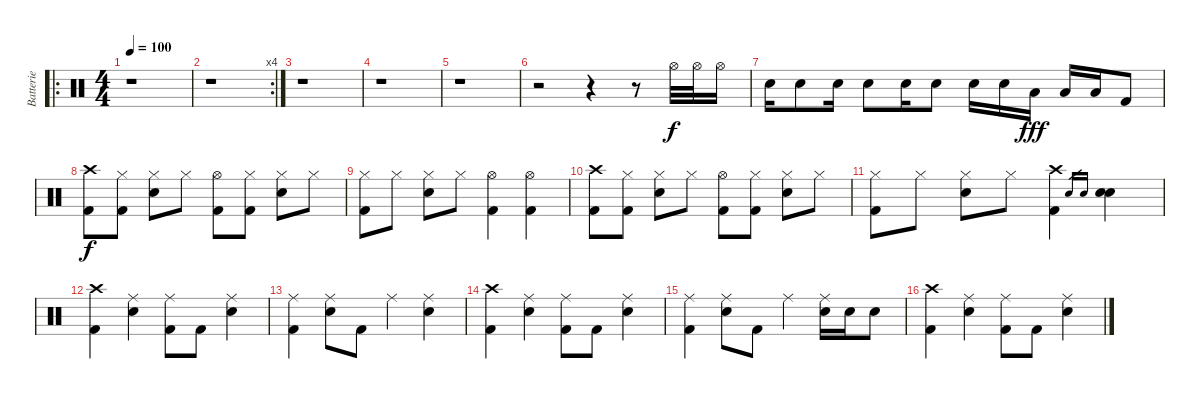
\track ("Batterie" "Batterie") {instrument percussion}
\staff {score}
\articulation defaults
\ro
\ts (4 4)
\tempo 100
\clef neutral
\ks c
r.1{dy f} |
\rc 4
r.1 |
r.1 |
r.1 |
r.1 |
r.2 r.4 r.8 "Hi-Hat (open)".32 "Hi-Hat (open)".32 "Hi-Hat (open)".16 |
"Electric Snare (hit)".16 "Electric Snare (hit)".8 "Electric Snare (hit)".16 "Electric Snare (hit)".8 "Electric Snare (hit)".16 "Electric Snare (hit)".8 "Electric Snare (hit)".16 "Electric Snare (hit)".16 "Low Floor Tom (hit)".16{dy fff} "Low Floor Tom (hit)".16 "Low Tom (hit)".16 "Kick (hit) 2".8 |
("Crash high (hit)" "Kick (hit) 2").8{dy f} ("Hi-Hat (closed)" "Kick (hit) 2").8 ("Hi-Hat (closed)" "Electric Snare (hit)").8 "Hi-Hat (closed)".8 ("Hi-Hat (open)" "Kick (hit) 2").8 ("Hi-Hat (closed)" "Kick (hit) 2").8 ("Hi-Hat (closed)" "Electric Snare (hit)").8 "Hi-Hat (closed)".8 |
("Hi-Hat (closed)" "Kick (hit) 2").8 "Hi-Hat (closed)".8 ("Hi-Hat (closed)" "Electric Snare (hit)").8 "Hi-Hat (closed)".8 ("Hi-Hat (open)" "Kick (hit) 2").4 ("Hi-Hat (open)" "Kick (hit) 2").4 |
("Crash high (hit)" "Kick (hit) 2").8 ("Hi-Hat (closed)" "Kick (hit) 2").8 ("Hi-Hat (closed)" "Electric Snare (hit)").8 "Hi-Hat (closed)".8 ("Hi-Hat (open)" "Kick (hit) 2").8 ("Hi-Hat (closed)" "Kick (hit) 2").8 ("Hi-Hat (closed)" "Electric Snare (hit)").8 "Hi-Hat (closed)".8 |
("Hi-Hat (closed)" "Kick (hit) 2").8 "Hi-Hat (closed)".8 ("Hi-Hat (closed)" "Electric Snare (hit)").8 "Hi-Hat (closed)".8 ("Crash high (hit)" "Kick (hit) 2").4 "Electric Snare (hit)".16{gr} "Electric Snare (hit)".16{gr} ("Electric Snare (hit)" "Electric Snare (hit)").4 |
("Crash high (hit)" "Kick (hit) 2").4 ("Ride (middle)" "Electric Snare (hit)").4 ("Ride (middle)" "Kick (hit) 2").8 "Kick (hit) 2".8 ("Ride (middle)" "Electric Snare (hit)").4 |
("Ride (middle)" "Kick (hit) 2").4 ("Ride (middle)" "Electric Snare (hit)").8 "Kick (hit) 2".8 "Ride (middle)".4 ("Ride (middle)" "Electric Snare (hit)").4 |
("Crash high (hit)" "Kick (hit) 2").4 ("Ride (middle)" "Electric Snare (hit)").4 ("Ride (middle)" "Kick (hit) 2").8 "Kick (hit) 2".8 ("Ride (middle)" "Electric Snare (hit)").4 |
("Ride (middle)" "Kick (hit) 2").4 ("Ride (middle)" "Electric Snare (hit)").8 "Kick (hit) 2".8 "Ride (middle)".4 ("Ride (middle)" "Electric Snare (hit)").16 "Electric Snare (hit)".16 "Electric Snare (hit)".8 |
("Crash high (hit)" "Kick (hit) 2").4 ("Ride (middle)" "Electric Snare (hit)").4 ("Ride (middle)" "Kick (hit) 2").8 "Kick (hit) 2".8 ("Ride (middle)" "Electric Snare (hit)").4
